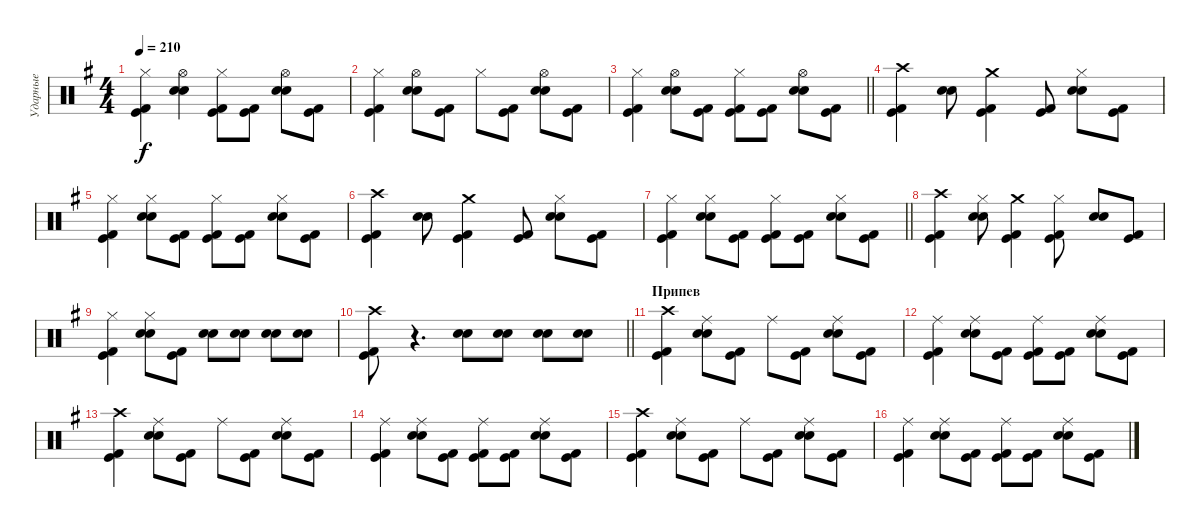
\track ("Ударные" "Ударные") {instrument percussion}
\staff {score}
\articulation defaults
\ts (4 4)
\tempo 210
\clef neutral
\ks g
("Hi-Hat (closed)" "Kick (hit) 2" "Kick (hit)").4{dy f} ("Hi-Hat (open)" "Electric Snare (hit)" "Snare (hit) 2").4 ("Hi-Hat (closed)" "Kick (hit) 2" "Kick (hit)").8 ("Kick (hit) 2" "Kick (hit)").8 ("Hi-Hat (open)" "Electric Snare (hit)" "Snare (hit) 2").8 ("Kick (hit) 2" "Kick (hit)").8 |
("Hi-Hat (closed)" "Kick (hit) 2" "Kick (hit)").4 ("Hi-Hat (open)" "Electric Snare (hit)" "Snare (hit) 2").8 ("Kick (hit) 2" "Kick (hit)").8 "Hi-Hat (closed)".8 ("Kick (hit) 2" "Kick (hit)").8 ("Hi-Hat (open)" "Electric Snare (hit)" "Snare (hit) 2").8 ("Kick (hit) 2" "Kick (hit)").8 |
\barLineRight lightlight
("Hi-Hat (closed)" "Kick (hit) 2" "Kick (hit)").4 ("Hi-Hat (open)" "Electric Snare (hit)" "Snare (hit) 2").8 ("Kick (hit) 2" "Kick (hit)").8 ("Hi-Hat (closed)" "Kick (hit) 2" "Kick (hit)").8 ("Kick (hit) 2" "Kick (hit)").8 ("Hi-Hat (open)" "Electric Snare (hit)" "Snare (hit) 2").8 ("Kick (hit) 2" "Kick (hit)").8 |
\section ("" "")
("Crash high (hit)" "Kick (hit) 2" "Kick (hit)").4 ("Electric Snare (hit)" "Snare (hit) 2").8 ("Crash medium (hit)" "Kick (hit) 2" "Kick (hit)").4 ("Kick (hit) 2" "Kick (hit)").8 ("Hi-Hat (closed)" "Electric Snare (hit)" "Snare (hit) 2").8 ("Kick (hit) 2" "Kick (hit)").8 |
("Hi-Hat (closed)" "Kick (hit) 2" "Kick (hit)").4 ("Hi-Hat (closed)" "Electric Snare (hit)" "Snare (hit) 2").8 ("Kick (hit) 2" "Kick (hit)").8 ("Hi-Hat (closed)" "Kick (hit) 2" "Kick (hit)").8 ("Kick (hit) 2" "Kick (hit)").8 ("Hi-Hat (closed)" "Electric Snare (hit)" "Snare (hit) 2").8 ("Kick (hit) 2" "Kick (hit)").8 |
("Crash high (hit)" "Kick (hit) 2" "Kick (hit)").4 ("Electric Snare (hit)" "Snare (hit) 2").8 ("Crash medium (hit)" "Kick (hit) 2" "Kick (hit)").4 ("Kick (hit) 2" "Kick (hit)").8 ("Hi-Hat (closed)" "Electric Snare (hit)" "Snare (hit) 2").8 ("Kick (hit) 2" "Kick (hit)").8 |
\barLineRight lightlight
("Hi-Hat (closed)" "Kick (hit) 2" "Kick (hit)").4 ("Hi-Hat (closed)" "Electric Snare (hit)" "Snare (hit) 2").8 ("Kick (hit) 2" "Kick (hit)").8 ("Hi-Hat (closed)" "Kick (hit) 2" "Kick (hit)").8 ("Kick (hit) 2" "Kick (hit)").8 ("Hi-Hat (closed)" "Electric Snare (hit)" "Snare (hit) 2").8 ("Kick (hit) 2" "Kick (hit)").8 |
("Crash high (hit)" "Kick (hit) 2" "Kick (hit)").4 ("Hi-Hat (closed)" "Electric Snare (hit)" "Snare (hit) 2").8 ("Crash medium (hit)" "Kick (hit) 2" "Kick (hit)").4 ("Hi-Hat (closed)" "Kick (hit) 2" "Kick (hit)").8 ("Electric Snare (hit)" "Snare (hit) 2").8 ("Kick (hit) 2" "Kick (hit)").8 |
("Hi-Hat (closed)" "Kick (hit) 2" "Kick (hit)").4 ("Hi-Hat (closed)" "Electric Snare (hit)" "Snare (hit) 2").8 ("Kick (hit) 2" "Kick (hit)").8 ("Electric Snare (hit)" "Snare (hit) 2").8 ("Electric Snare (hit)" "Snare (hit) 2").8 ("Electric Snare (hit)" "Snare (hit) 2").8 ("Electric Snare (hit)" "Snare (hit) 2").8 |
\barLineRight lightlight
("Crash high (hit)" "Kick (hit) 2" "Kick (hit)").8 r.4{d} ("Electric Snare (hit)" "Snare (hit) 2").8 ("Electric Snare (hit)" "Snare (hit) 2").8 ("Electric Snare (hit)" "Snare (hit) 2").8 ("Electric Snare (hit)" "Snare (hit) 2").8 |
\section ("" "Припев")
("Crash high (hit)" "Kick (hit) 2" "Kick (hit)").4 ("Ride (middle)" "Electric Snare (hit)" "Snare (hit) 2").8 ("Kick (hit) 2" "Kick (hit)").8 "Ride (middle)".8 ("Kick (hit) 2" "Kick (hit)").8 ("Ride (middle)" "Electric Snare (hit)" "Snare (hit) 2").8 ("Kick (hit) 2" "Kick (hit)").8 |
("Ride (middle)" "Kick (hit) 2" "Kick (hit)").4 ("Ride (middle)" "Electric Snare (hit)" "Snare (hit) 2").8 ("Kick (hit) 2" "Kick (hit)").8 ("Ride (middle)" "Kick (hit) 2" "Kick (hit)").8 ("Kick (hit) 2" "Kick (hit)").8 ("Ride (middle)" "Electric Snare (hit)" "Snare (hit) 2").8 ("Kick (hit) 2" "Kick (hit)").8 |
("Crash high (hit)" "Kick (hit) 2" "Kick (hit)").4 ("Ride (middle)" "Electric Snare (hit)" "Snare (hit) 2").8 ("Kick (hit) 2" "Kick (hit)").8 "Ride (middle)".8 ("Kick (hit) 2" "Kick (hit)").8 ("Ride (middle)" "Electric Snare (hit)" "Snare (hit) 2").8 ("Kick (hit) 2" "Kick (hit)").8 |
("Ride (middle)" "Kick (hit) 2" "Kick (hit)").4 ("Ride (middle)" "Electric Snare (hit)" "Snare (hit) 2").8 ("Kick (hit) 2" "Kick (hit)").8 ("Ride (middle)" "Kick (hit) 2" "Kick (hit)").8 ("Kick (hit) 2" "Kick (hit)").8 ("Ride (middle)" "Electric Snare (hit)" "Snare (hit) 2").8 ("Kick (hit) 2" "Kick (hit)").8 |
("Crash high (hit)" "Kick (hit) 2" "Kick (hit)").4 ("Ride (middle)" "Electric Snare (hit)" "Snare (hit) 2").8 ("Kick (hit) 2" "Kick (hit)").8 "Ride (middle)".8 ("Kick (hit) 2" "Kick (hit)").8 ("Ride (middle)" "Electric Snare (hit)" "Snare (hit) 2").8 ("Kick (hit) 2" "Kick (hit)").8 |
("Ride (middle)" "Kick (hit) 2" "Kick (hit)").4 ("Ride (middle)" "Electric Snare (hit)" "Snare (hit) 2").8 ("Kick (hit) 2" "Kick (hit)").8 ("Ride (middle)" "Kick (hit) 2" "Kick (hit)").8 ("Kick (hit) 2" "Kick (hit)").8 ("Ride (middle)" "Electric Snare (hit)" "Snare (hit) 2").8 ("Kick (hit) 2" "Kick (hit)").8
